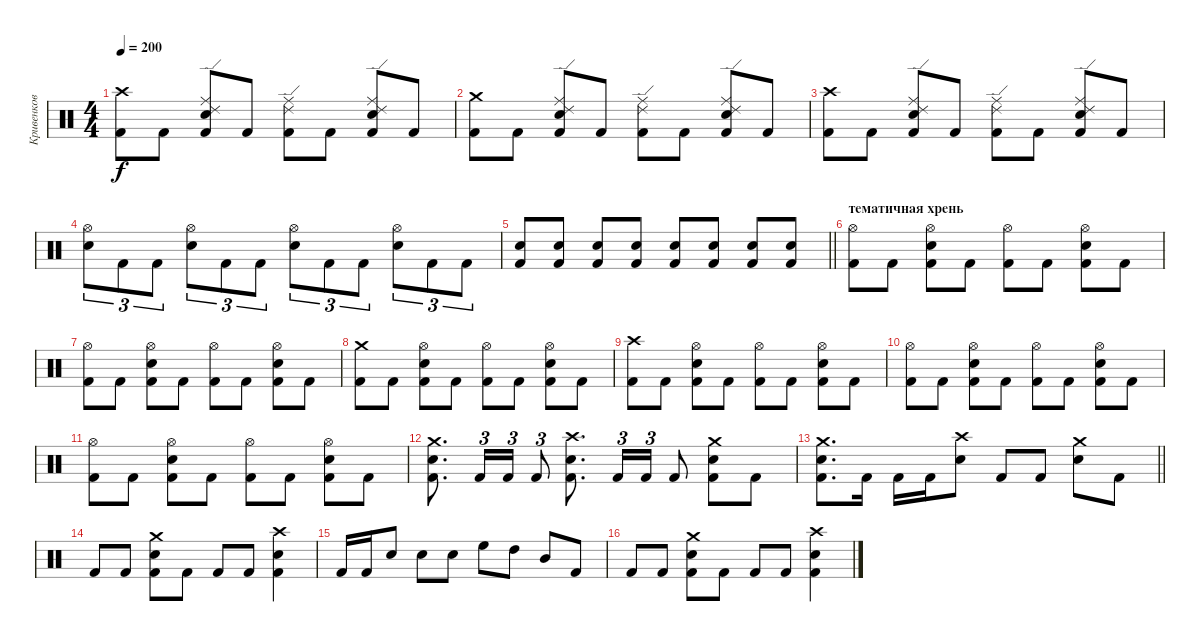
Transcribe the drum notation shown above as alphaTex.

\track ("Кривенков" "Кривенков") {instrument percussion}
\staff {score}
\articulation defaults
\ts (4 4)
\tempo 200
\clef neutral
\ks c
("Crash high (hit)" "Kick (hit) 2").8{dy f} "Kick (hit) 2".8 ("Ride (edge) 2" "Ride (middle)" "Electric Snare (hit)" "Kick (hit) 2").8 "Kick (hit) 2".8 ("Ride (edge) 2" "Ride (middle)" "Kick (hit) 2").8 "Kick (hit) 2".8 ("Ride (edge) 2" "Ride (middle)" "Electric Snare (hit)" "Kick (hit) 2").8 "Kick (hit) 2".8 |
("Crash medium (hit)" "Kick (hit) 2").8 "Kick (hit) 2".8 ("Ride (edge) 2" "Ride (middle)" "Electric Snare (hit)" "Kick (hit) 2").8 "Kick (hit) 2".8 ("Ride (edge) 2" "Ride (middle)" "Kick (hit) 2").8 "Kick (hit) 2".8 ("Ride (edge) 2" "Ride (middle)" "Electric Snare (hit)" "Kick (hit) 2").8 "Kick (hit) 2".8 |
("Crash high (hit)" "Kick (hit) 2").8 "Kick (hit) 2".8 ("Ride (edge) 2" "Ride (middle)" "Electric Snare (hit)" "Kick (hit) 2").8 "Kick (hit) 2".8 ("Ride (edge) 2" "Ride (middle)" "Kick (hit) 2").8 "Kick (hit) 2".8 ("Ride (edge) 2" "Ride (middle)" "Electric Snare (hit)" "Kick (hit) 2").8 "Kick (hit) 2".8 |
("Hi-Hat (open)" "Electric Snare (hit)").8{tu (3 2)} "Kick (hit) 2".8{tu (3 2)} "Kick (hit) 2".8{tu (3 2)} ("Hi-Hat (open)" "Electric Snare (hit)").8{tu (3 2)} "Kick (hit) 2".8{tu (3 2)} "Kick (hit) 2".8{tu (3 2)} ("Hi-Hat (open)" "Electric Snare (hit)").8{tu (3 2)} "Kick (hit) 2".8{tu (3 2)} "Kick (hit) 2".8{tu (3 2)} ("Hi-Hat (open)" "Electric Snare (hit)").8{tu (3 2)} "Kick (hit) 2".8{tu (3 2)} "Kick (hit) 2".8{tu (3 2)} |
\barLineRight lightlight
("Electric Snare (hit)" "Kick (hit) 2").8 ("Electric Snare (hit)" "Kick (hit) 2").8 ("Electric Snare (hit)" "Kick (hit) 2").8 ("Electric Snare (hit)" "Kick (hit) 2").8 ("Electric Snare (hit)" "Kick (hit) 2").8 ("Electric Snare (hit)" "Kick (hit) 2").8 ("Electric Snare (hit)" "Kick (hit) 2").8 ("Electric Snare (hit)" "Kick (hit) 2").8 |
\section ("" "тематичная хрень")
("Hi-Hat (open)" "Kick (hit) 2").8 "Kick (hit) 2".8 ("Hi-Hat (open)" "Electric Snare (hit)" "Kick (hit) 2").8 "Kick (hit) 2".8 ("Hi-Hat (open)" "Kick (hit) 2").8 "Kick (hit) 2".8 ("Hi-Hat (open)" "Electric Snare (hit)" "Kick (hit) 2").8 "Kick (hit) 2".8 |
("Hi-Hat (open)" "Kick (hit) 2").8 "Kick (hit) 2".8 ("Hi-Hat (open)" "Electric Snare (hit)" "Kick (hit) 2").8 "Kick (hit) 2".8 ("Hi-Hat (open)" "Kick (hit) 2").8 "Kick (hit) 2".8 ("Hi-Hat (open)" "Electric Snare (hit)" "Kick (hit) 2").8 "Kick (hit) 2".8 |
("Crash medium (hit)" "Kick (hit) 2").8 "Kick (hit) 2".8 ("Hi-Hat (open)" "Electric Snare (hit)" "Kick (hit) 2").8 "Kick (hit) 2".8 ("Hi-Hat (open)" "Kick (hit) 2").8 "Kick (hit) 2".8 ("Hi-Hat (open)" "Electric Snare (hit)" "Kick (hit) 2").8 "Kick (hit) 2".8 |
("Crash high (hit)" "Kick (hit) 2").8 "Kick (hit) 2".8 ("Hi-Hat (open)" "Electric Snare (hit)" "Kick (hit) 2").8 "Kick (hit) 2".8 ("Hi-Hat (open)" "Kick (hit) 2").8 "Kick (hit) 2".8 ("Hi-Hat (open)" "Electric Snare (hit)" "Kick (hit) 2").8 "Kick (hit) 2".8 |
("Hi-Hat (open)" "Kick (hit) 2").8 "Kick (hit) 2".8 ("Hi-Hat (open)" "Electric Snare (hit)" "Kick (hit) 2").8 "Kick (hit) 2".8 ("Hi-Hat (open)" "Kick (hit) 2").8 "Kick (hit) 2".8 ("Hi-Hat (open)" "Electric Snare (hit)" "Kick (hit) 2").8 "Kick (hit) 2".8 |
("Hi-Hat (open)" "Kick (hit) 2").8 "Kick (hit) 2".8 ("Hi-Hat (open)" "Electric Snare (hit)" "Kick (hit) 2").8 "Kick (hit) 2".8 ("Hi-Hat (open)" "Kick (hit) 2").8 "Kick (hit) 2".8 ("Hi-Hat (open)" "Electric Snare (hit)" "Kick (hit) 2").8 "Kick (hit) 2".8 |
("Crash medium (hit)" "Electric Snare (hit)" "Kick (hit) 2").8{d} "Kick (hit) 2".16{tu (3 2)} "Kick (hit) 2".16{tu (3 2)} "Kick (hit) 2".8{tu (3 2)} ("Crash high (hit)" "Electric Snare (hit)" "Kick (hit) 2").8{d} "Kick (hit) 2".16{tu (3 2)} "Kick (hit) 2".16{tu (3 2)} "Kick (hit) 2".8 ("Crash medium (hit)" "Electric Snare (hit)" "Kick (hit) 2").8 "Kick (hit) 2".8 |
\barLineRight lightlight
("Crash medium (hit)" "Electric Snare (hit)" "Kick (hit) 2").8{d} "Kick (hit) 2".16 "Kick (hit) 2".16 "Kick (hit) 2".16 ("Crash high (hit)" "Electric Snare (hit)").8 "Kick (hit) 2".8 "Kick (hit) 2".8 ("Crash medium (hit)" "Electric Snare (hit)").8 "Kick (hit) 2".8 |
"Kick (hit) 2".8 "Kick (hit) 2".8 ("Crash medium (hit)" "Electric Snare (hit)" "Kick (hit) 2").8 "Kick (hit) 2".8 "Kick (hit) 2".8 "Kick (hit) 2".8 ("Crash high (hit)" "Electric Snare (hit)" "Kick (hit) 2").4 |
"Kick (hit) 2".16 "Kick (hit) 2".16 "Electric Snare (hit)".8 "Electric Snare (hit)".8 "Electric Snare (hit)".8 "High Floor Tom (hit)".8 "High Tom (hit)".8 "Mid Tom (hit)".8 "Kick (hit) 2".8 |
"Kick (hit) 2".8 "Kick (hit) 2".8 ("Crash medium (hit)" "Electric Snare (hit)" "Kick (hit) 2").8 "Kick (hit) 2".8 "Kick (hit) 2".8 "Kick (hit) 2".8 ("Crash high (hit)" "Electric Snare (hit)" "Kick (hit) 2").4
